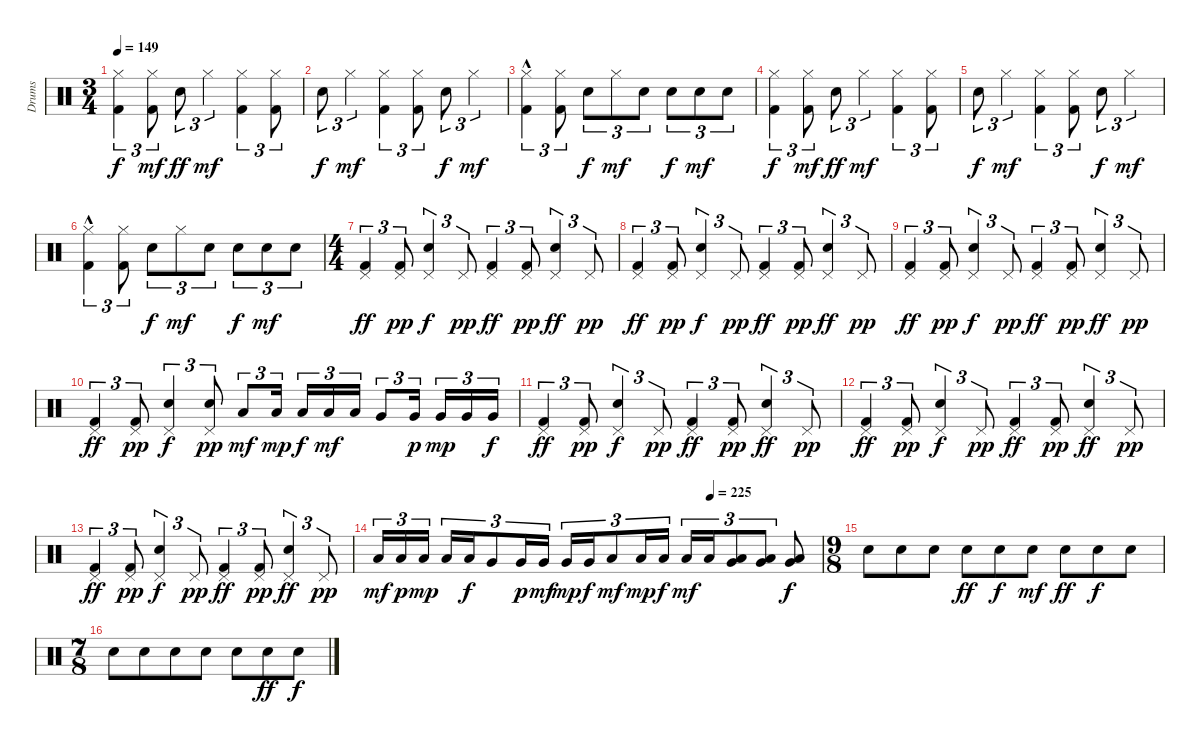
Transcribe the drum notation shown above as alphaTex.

\track ("Drums" "Drums") {instrument percussion}
\staff {score}
\articulation defaults
\ts (3 4)
\tempo 149
\clef neutral
\ks c
("Kick (hit) 2" "Hi-Hat (closed)").4{tu (3 2) dy f} ("Kick (hit) 2" "Hi-Hat (closed)").8{tu (3 2) dy mf} "Snare (hit) 2".8{tu (3 2) dy ff} "Hi-Hat (closed)".4{tu (3 2) dy mf} ("Kick (hit) 2" "Hi-Hat (closed)").4{tu (3 2)} ("Kick (hit) 2" "Hi-Hat (closed)").8{tu (3 2)} |
"Snare (hit) 2".8{tu (3 2) dy f} "Hi-Hat (closed)".4{tu (3 2) dy mf} ("Kick (hit) 2" "Hi-Hat (closed)").4{tu (3 2)} ("Kick (hit) 2" "Hi-Hat (closed)").8{tu (3 2)} "Snare (hit) 2".8{tu (3 2) dy f} "Hi-Hat (closed)".4{tu (3 2) dy mf} |
("Kick (hit) 2" "Hi-Hat (closed)"{hac}).4{tu (3 2)} ("Kick (hit) 2" "Hi-Hat (closed)").8{tu (3 2)} "Snare (hit) 2".8{tu (3 2) dy f} "Hi-Hat (closed)".8{tu (3 2) dy mf} "Snare (hit) 2".8{tu (3 2)} "Snare (hit) 2".8{tu (3 2) dy f} "Snare (hit) 2".8{tu (3 2) dy mf} "Snare (hit) 2".8{tu (3 2)} |
("Kick (hit) 2" "Hi-Hat (closed)").4{tu (3 2) dy f} ("Kick (hit) 2" "Hi-Hat (closed)").8{tu (3 2) dy mf} "Snare (hit) 2".8{tu (3 2) dy ff} "Hi-Hat (closed)".4{tu (3 2) dy mf} ("Kick (hit) 2" "Hi-Hat (closed)").4{tu (3 2)} ("Kick (hit) 2" "Hi-Hat (closed)").8{tu (3 2)} |
"Snare (hit) 2".8{tu (3 2) dy f} "Hi-Hat (closed)".4{tu (3 2) dy mf} ("Kick (hit) 2" "Hi-Hat (closed)").4{tu (3 2)} ("Kick (hit) 2" "Hi-Hat (closed)").8{tu (3 2)} "Snare (hit) 2".8{tu (3 2) dy f} "Hi-Hat (closed)".4{tu (3 2) dy mf} |
("Kick (hit) 2" "Hi-Hat (closed)"{hac}).4{tu (3 2)} ("Kick (hit) 2" "Hi-Hat (closed)").8{tu (3 2)} "Snare (hit) 2".8{tu (3 2) dy f} "Hi-Hat (closed)".8{tu (3 2) dy mf} "Snare (hit) 2".8{tu (3 2)} "Snare (hit) 2".8{tu (3 2) dy f} "Snare (hit) 2".8{tu (3 2) dy mf} "Snare (hit) 2".8{tu (3 2)} |
\ts (4 4)
("Kick (hit) 2" "Pedal Hi-Hat (hit)").4{tu (3 2) dy ff} ("Kick (hit) 2" "Pedal Hi-Hat (hit)").8{tu (3 2) dy pp} ("Snare (hit) 2" "Pedal Hi-Hat (hit)").4{tu (3 2) dy f} "Pedal Hi-Hat (hit)".8{tu (3 2) dy pp} ("Kick (hit) 2" "Pedal Hi-Hat (hit)").4{tu (3 2) dy ff} ("Kick (hit) 2" "Pedal Hi-Hat (hit)").8{tu (3 2) dy pp} ("Snare (hit) 2" "Pedal Hi-Hat (hit)").4{tu (3 2) dy ff} "Pedal Hi-Hat (hit)".8{tu (3 2) dy pp} |
("Kick (hit) 2" "Pedal Hi-Hat (hit)").4{tu (3 2) dy ff} ("Kick (hit) 2" "Pedal Hi-Hat (hit)").8{tu (3 2) dy pp} ("Snare (hit) 2" "Pedal Hi-Hat (hit)").4{tu (3 2) dy f} "Pedal Hi-Hat (hit)".8{tu (3 2) dy pp} ("Kick (hit) 2" "Pedal Hi-Hat (hit)").4{tu (3 2) dy ff} ("Kick (hit) 2" "Pedal Hi-Hat (hit)").8{tu (3 2) dy pp} ("Snare (hit) 2" "Pedal Hi-Hat (hit)").4{tu (3 2) dy ff} "Pedal Hi-Hat (hit)".8{tu (3 2) dy pp} |
("Kick (hit) 2" "Pedal Hi-Hat (hit)").4{tu (3 2) dy ff} ("Kick (hit) 2" "Pedal Hi-Hat (hit)").8{tu (3 2) dy pp} ("Snare (hit) 2" "Pedal Hi-Hat (hit)").4{tu (3 2) dy f} "Pedal Hi-Hat (hit)".8{tu (3 2) dy pp} ("Kick (hit) 2" "Pedal Hi-Hat (hit)").4{tu (3 2) dy ff} ("Kick (hit) 2" "Pedal Hi-Hat (hit)").8{tu (3 2) dy pp} ("Snare (hit) 2" "Pedal Hi-Hat (hit)").4{tu (3 2) dy ff} "Pedal Hi-Hat (hit)".8{tu (3 2) dy pp} |
("Kick (hit) 2" "Pedal Hi-Hat (hit)").4{tu (3 2) dy ff} ("Kick (hit) 2" "Pedal Hi-Hat (hit)").8{tu (3 2) dy pp} ("Snare (hit) 2" "Pedal Hi-Hat (hit)").4{tu (3 2) dy f} ("Snare (hit) 2" "Pedal Hi-Hat (hit)").8{tu (3 2) dy pp} "Low Tom (hit)".8{tu (3 2) dy mf} "Low Tom (hit)".16{tu (3 2) dy mp} "Low Tom (hit)".16{tu (3 2) dy f} "Low Tom (hit)".16{tu (3 2) dy mf} "Low Tom (hit)".16{tu (3 2)} "Very Low Tom (hit)".8{tu (3 2)} "Very Low Tom (hit)".16{tu (3 2) dy p} "Very Low Tom (hit)".16{tu (3 2) dy mp} "Very Low Tom (hit)".16{tu (3 2)} "Very Low Tom (hit)".16{tu (3 2) dy f} |
("Kick (hit) 2" "Pedal Hi-Hat (hit)").4{tu (3 2) dy ff} ("Kick (hit) 2" "Pedal Hi-Hat (hit)").8{tu (3 2) dy pp} ("Snare (hit) 2" "Pedal Hi-Hat (hit)").4{tu (3 2) dy f} "Pedal Hi-Hat (hit)".8{tu (3 2) dy pp} ("Kick (hit) 2" "Pedal Hi-Hat (hit)").4{tu (3 2) dy ff} ("Kick (hit) 2" "Pedal Hi-Hat (hit)").8{tu (3 2) dy pp} ("Snare (hit) 2" "Pedal Hi-Hat (hit)").4{tu (3 2) dy ff} "Pedal Hi-Hat (hit)".8{tu (3 2) dy pp} |
("Kick (hit) 2" "Pedal Hi-Hat (hit)").4{tu (3 2) dy ff} ("Kick (hit) 2" "Pedal Hi-Hat (hit)").8{tu (3 2) dy pp} ("Snare (hit) 2" "Pedal Hi-Hat (hit)").4{tu (3 2) dy f} "Pedal Hi-Hat (hit)".8{tu (3 2) dy pp} ("Kick (hit) 2" "Pedal Hi-Hat (hit)").4{tu (3 2) dy ff} ("Kick (hit) 2" "Pedal Hi-Hat (hit)").8{tu (3 2) dy pp} ("Snare (hit) 2" "Pedal Hi-Hat (hit)").4{tu (3 2) dy ff} "Pedal Hi-Hat (hit)".8{tu (3 2) dy pp} |
("Kick (hit) 2" "Pedal Hi-Hat (hit)").4{tu (3 2) dy ff} ("Kick (hit) 2" "Pedal Hi-Hat (hit)").8{tu (3 2) dy pp} ("Snare (hit) 2" "Pedal Hi-Hat (hit)").4{tu (3 2) dy f} "Pedal Hi-Hat (hit)".8{tu (3 2) dy pp} ("Kick (hit) 2" "Pedal Hi-Hat (hit)").4{tu (3 2) dy ff} ("Kick (hit) 2" "Pedal Hi-Hat (hit)").8{tu (3 2) dy pp} ("Snare (hit) 2" "Pedal Hi-Hat (hit)").4{tu (3 2) dy ff} "Pedal Hi-Hat (hit)".8{tu (3 2) dy pp} |
\tempo (225 0.75)
"Low Floor Tom (hit)".16{tu (3 2) dy mf} "Low Floor Tom (hit)".16{tu (3 2) dy p} "Low Floor Tom (hit)".16{tu (3 2) dy mp} "Low Floor Tom (hit)".16{tu (3 2)} "Low Floor Tom (hit)".16{tu (3 2) dy f} "Very Low Tom (hit)".8{tu (3 2)} "Very Low Tom (hit)".16{tu (3 2) dy p} "Very Low Tom (hit)".16{tu (3 2) dy mf} "Very Low Tom (hit)".16{tu (3 2) dy mp} "Very Low Tom (hit)".16{tu (3 2) dy f} "Low Tom (hit)".8{tu (3 2) dy mf} "Low Tom (hit)".16{tu (3 2) dy mp} "Low Tom (hit)".16{tu (3 2) dy f} "Low Tom (hit)".16{tu (3 2) dy mf} "Low Tom (hit)".16{tu (3 2)} ("Very Low Tom (hit)" "Low Floor Tom (hit)").8{tu (3 2)} ("Very Low Tom (hit)" "Low Floor Tom (hit)").8{tu (3 2)} ("Very Low Tom (hit)" "Low Floor Tom (hit)").8{dy f} |
\ts (9 8)
"Snare (hit) 2".8 "Snare (hit) 2".8 "Snare (hit) 2".8 "Snare (hit) 2".8{dy ff} "Snare (hit) 2".8{dy f} "Snare (hit) 2".8{dy mf} "Snare (hit) 2".8{dy ff} "Snare (hit) 2".8{dy f} "Snare (hit) 2".8 |
\ts (7 8)
"Snare (hit) 2".8 "Snare (hit) 2".8 "Snare (hit) 2".8 "Snare (hit) 2".8 "Snare (hit) 2".8 "Snare (hit) 2".8{dy ff} "Snare (hit) 2".8{dy f}
